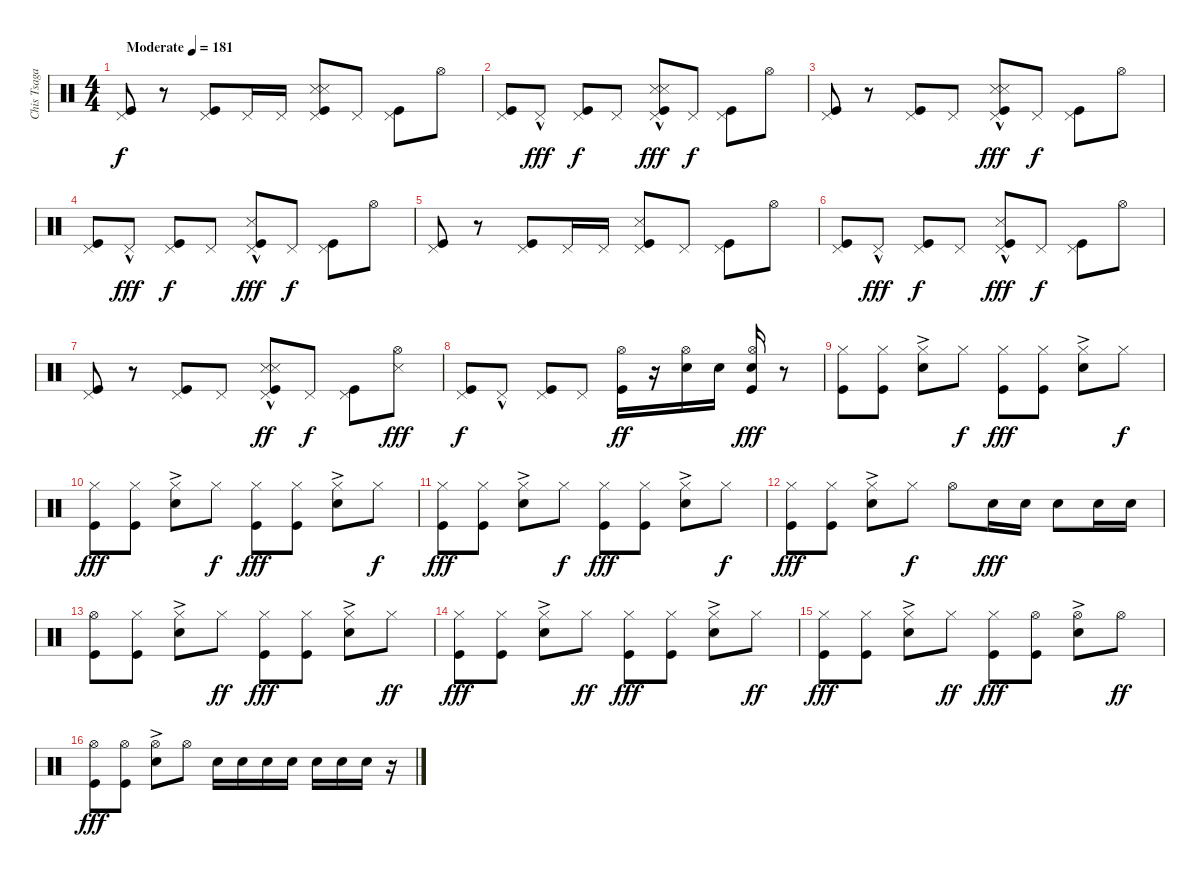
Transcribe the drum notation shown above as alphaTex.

\track ("Chis Tsagakis" "Chis Tsaga") {instrument percussion}
\staff {score}
\articulation defaults
\ts (4 4)
\tempo (181 "Moderate")
\clef neutral
\ks c
("Pedal Hi-Hat (hit)" "Kick (hit)").8{dy f} r.8 ("Pedal Hi-Hat (hit)" "Kick (hit)").8 "Pedal Hi-Hat (hit)".16 "Pedal Hi-Hat (hit)".16 ("Pedal Hi-Hat (hit)" "Snare (side stick) 3" "Snare (side stick) 3" "Kick (hit)").8 "Pedal Hi-Hat (hit)".8 ("Pedal Hi-Hat (hit)" "Kick (hit)").8 "Hi-Hat (open)".8 |
("Pedal Hi-Hat (hit)" "Kick (hit)").8 "Pedal Hi-Hat (hit)"{hac}.8{dy fff} ("Pedal Hi-Hat (hit)" "Kick (hit)").8{dy f} "Pedal Hi-Hat (hit)".8 ("Pedal Hi-Hat (hit)"{hac} "Snare (side stick) 3" "Snare (side stick) 3" "Kick (hit)").8{dy fff} "Pedal Hi-Hat (hit)".8{dy f} ("Pedal Hi-Hat (hit)" "Kick (hit)").8 "Hi-Hat (open)".8 |
("Pedal Hi-Hat (hit)" "Kick (hit)").8 r.8 ("Pedal Hi-Hat (hit)" "Kick (hit)").8 "Pedal Hi-Hat (hit)".8 ("Pedal Hi-Hat (hit)"{hac} "Snare (side stick) 3" "Snare (side stick) 3" "Kick (hit)").8{dy fff} "Pedal Hi-Hat (hit)".8{dy f} ("Pedal Hi-Hat (hit)" "Kick (hit)").8 "Hi-Hat (open)".8 |
("Pedal Hi-Hat (hit)" "Kick (hit)").8 "Pedal Hi-Hat (hit)"{hac}.8{dy fff} ("Pedal Hi-Hat (hit)" "Kick (hit)").8{dy f} "Pedal Hi-Hat (hit)".8 ("Pedal Hi-Hat (hit)"{hac} "Snare (side stick) 3" "Kick (hit)").8{dy fff} "Pedal Hi-Hat (hit)".8{dy f} ("Pedal Hi-Hat (hit)" "Kick (hit)").8 "Hi-Hat (open)".8 |
("Pedal Hi-Hat (hit)" "Kick (hit)").8 r.8 ("Pedal Hi-Hat (hit)" "Kick (hit)").8 "Pedal Hi-Hat (hit)".16 "Pedal Hi-Hat (hit)".16 ("Pedal Hi-Hat (hit)" "Snare (side stick) 3" "Kick (hit)").8 "Pedal Hi-Hat (hit)".8 ("Pedal Hi-Hat (hit)" "Kick (hit)").8 "Hi-Hat (open)".8 |
("Pedal Hi-Hat (hit)" "Kick (hit)").8 "Pedal Hi-Hat (hit)"{hac}.8{dy fff} ("Pedal Hi-Hat (hit)" "Kick (hit)").8{dy f} "Pedal Hi-Hat (hit)".8 ("Pedal Hi-Hat (hit)"{hac} "Snare (side stick) 3" "Kick (hit)").8{dy fff} "Pedal Hi-Hat (hit)".8{dy f} ("Pedal Hi-Hat (hit)" "Kick (hit)").8 "Hi-Hat (open)".8 |
("Pedal Hi-Hat (hit)" "Kick (hit)").8 r.8 ("Pedal Hi-Hat (hit)" "Kick (hit)").8 "Pedal Hi-Hat (hit)".8 ("Pedal Hi-Hat (hit)"{hac} "Snare (side stick) 3" "Snare (side stick) 3" "Kick (hit)").8{dy ff} "Pedal Hi-Hat (hit)".8{dy f} ("Pedal Hi-Hat (hit)" "Kick (hit)").8 ("Hi-Hat (open)" "Snare (side stick) 3").8{dy fff} |
("Pedal Hi-Hat (hit)" "Kick (hit)").8{dy f} "Pedal Hi-Hat (hit)"{hac}.8 ("Pedal Hi-Hat (hit)" "Kick (hit)").8 "Pedal Hi-Hat (hit)".8 ("Hi-Hat (open)" "Kick (hit)").16{dy ff} r.16 ("Hi-Hat (open)" "Electric Snare (hit)").16 "Electric Snare (hit)".16 ("Hi-Hat (open)" "Electric Snare (hit)" "Kick (hit)").16{dy fff} r.8 |
("Hi-Hat (closed)" "Kick (hit)").8 ("Hi-Hat (closed)" "Kick (hit)").8 ("Hi-Hat (closed)"{ac} "Electric Snare (hit)").8 "Hi-Hat (closed)".8{dy f} ("Hi-Hat (closed)" "Kick (hit)").8{dy fff} ("Hi-Hat (closed)" "Kick (hit)").8 ("Hi-Hat (closed)"{ac} "Electric Snare (hit)").8 "Hi-Hat (closed)".8{dy f} |
("Hi-Hat (closed)" "Kick (hit)").8{dy fff} ("Hi-Hat (closed)" "Kick (hit)").8 ("Hi-Hat (closed)"{ac} "Electric Snare (hit)").8 "Hi-Hat (closed)".8{dy f} ("Hi-Hat (closed)" "Kick (hit)").8{dy fff} ("Hi-Hat (closed)" "Kick (hit)").8 ("Hi-Hat (closed)"{ac} "Electric Snare (hit)").8 "Hi-Hat (closed)".8{dy f} |
("Hi-Hat (closed)" "Kick (hit)").8{dy fff} ("Hi-Hat (closed)" "Kick (hit)").8 ("Hi-Hat (closed)"{ac} "Electric Snare (hit)").8 "Hi-Hat (closed)".8{dy f} ("Hi-Hat (closed)" "Kick (hit)").8{dy fff} ("Hi-Hat (closed)" "Kick (hit)").8 ("Hi-Hat (closed)"{ac} "Electric Snare (hit)").8 "Hi-Hat (closed)".8{dy f} |
("Hi-Hat (closed)" "Kick (hit)").8{dy fff} ("Hi-Hat (closed)" "Kick (hit)").8 ("Hi-Hat (closed)"{ac} "Electric Snare (hit)").8 "Hi-Hat (closed)".8{dy f} "Hi-Hat (open)".8 "Electric Snare (hit)".16{dy fff} "Electric Snare (hit)".16 "Electric Snare (hit)".8 "Electric Snare (hit)".16 "Electric Snare (hit)".16 |
("Hi-Hat (open)" "Kick (hit)").8 ("Hi-Hat (closed)" "Kick (hit)").8 ("Hi-Hat (closed)"{ac} "Electric Snare (hit)").8 "Hi-Hat (closed)".8{dy ff} ("Hi-Hat (closed)" "Kick (hit)").8{dy fff} ("Hi-Hat (closed)" "Kick (hit)").8 ("Hi-Hat (closed)"{ac} "Electric Snare (hit)").8 "Hi-Hat (closed)".8{dy ff} |
("Hi-Hat (closed)" "Kick (hit)").8{dy fff} ("Hi-Hat (closed)" "Kick (hit)").8 ("Hi-Hat (closed)"{ac} "Electric Snare (hit)").8 "Hi-Hat (closed)".8{dy ff} ("Hi-Hat (closed)" "Kick (hit)").8{dy fff} ("Hi-Hat (closed)" "Kick (hit)").8 ("Hi-Hat (closed)"{ac} "Electric Snare (hit)").8 "Hi-Hat (closed)".8{dy ff} |
("Hi-Hat (closed)" "Kick (hit)").8{dy fff} ("Hi-Hat (closed)" "Kick (hit)").8 ("Hi-Hat (closed)"{ac} "Electric Snare (hit)").8 "Hi-Hat (closed)".8{dy ff} ("Hi-Hat (closed)" "Kick (hit)").8{dy fff} ("Hi-Hat (open)" "Kick (hit)").8 ("Hi-Hat (open)"{ac} "Electric Snare (hit)").8 "Hi-Hat (open)".8{dy ff} |
("Hi-Hat (open)" "Kick (hit)").8{dy fff} ("Hi-Hat (open)" "Kick (hit)").8 ("Hi-Hat (open)"{ac} "Electric Snare (hit)").8 "Hi-Hat (open)".8 "Electric Snare (hit)".16 "Electric Snare (hit)".16 "Electric Snare (hit)".16 "Electric Snare (hit)".16 "Electric Snare (hit)".16 "Electric Snare (hit)".16 "Electric Snare (hit)".16 r.16
